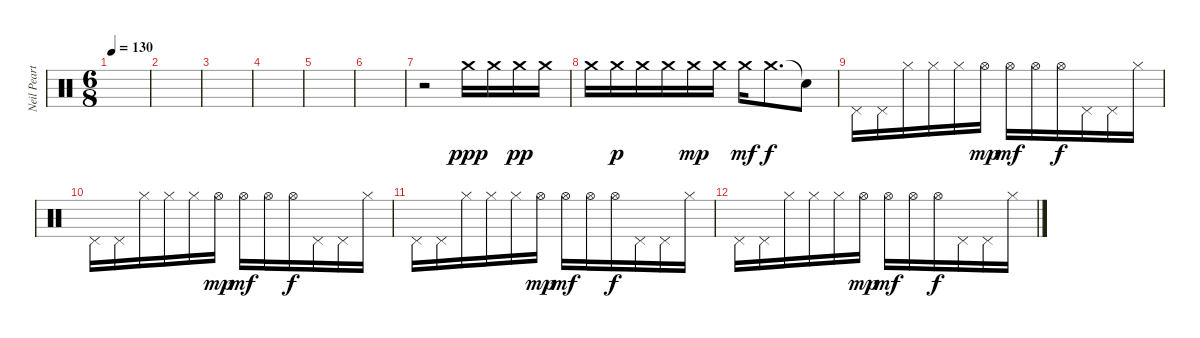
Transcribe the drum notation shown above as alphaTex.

\track ("Neil Peart " "Neil Peart") {instrument percussion bank 49}
\staff {score}
\articulation defaults
\ts (6 8)
\tempo 130
\clef neutral
\ks c
|
|
|
|
|
|
r.2 "Crash medium (hit)".16{dy ppp} "Crash medium (hit)".16 "Crash medium (hit)".16{dy pp} "Crash medium (hit)".16 |
"Crash medium (hit)".16 "Crash medium (hit)".16{dy p} "Crash medium (hit)".16 "Crash medium (hit)".16 "Crash medium (hit)".16{dy mp} "Crash medium (hit)".16 "Crash medium (hit)".16{dy mf} "Crash medium (hit)".8{d dy f} "Snare (hit)"{t}.8 |
"Pedal Hi-Hat (hit)".16 "Pedal Hi-Hat (hit)".16 "Hi-Hat (closed)".16 "Hi-Hat (closed)".16 "Hi-Hat (closed)".16 "Hi-Hat (open)".16{dy mp} "Hi-Hat (open)".16{dy mf} "Hi-Hat (open)".16 "Hi-Hat (open)".16{dy f} "Pedal Hi-Hat (hit)".16 "Pedal Hi-Hat (hit)".16 "Hi-Hat (closed)".16 |
"Pedal Hi-Hat (hit)".16 "Pedal Hi-Hat (hit)".16 "Hi-Hat (closed)".16 "Hi-Hat (closed)".16 "Hi-Hat (closed)".16 "Hi-Hat (open)".16{dy mp} "Hi-Hat (open)".16{dy mf} "Hi-Hat (open)".16 "Hi-Hat (open)".16{dy f} "Pedal Hi-Hat (hit)".16 "Pedal Hi-Hat (hit)".16 "Hi-Hat (closed)".16 |
"Pedal Hi-Hat (hit)".16 "Pedal Hi-Hat (hit)".16 "Hi-Hat (closed)".16 "Hi-Hat (closed)".16 "Hi-Hat (closed)".16 "Hi-Hat (open)".16{dy mp} "Hi-Hat (open)".16{dy mf} "Hi-Hat (open)".16 "Hi-Hat (open)".16{dy f} "Pedal Hi-Hat (hit)".16 "Pedal Hi-Hat (hit)".16 "Hi-Hat (closed)".16 |
"Pedal Hi-Hat (hit)".16 "Pedal Hi-Hat (hit)".16 "Hi-Hat (closed)".16 "Hi-Hat (closed)".16 "Hi-Hat (closed)".16 "Hi-Hat (open)".16{dy mp} "Hi-Hat (open)".16{dy mf} "Hi-Hat (open)".16 "Hi-Hat (open)".16{dy f} "Pedal Hi-Hat (hit)".16 "Pedal Hi-Hat (hit)".16 "Hi-Hat (closed)".16
